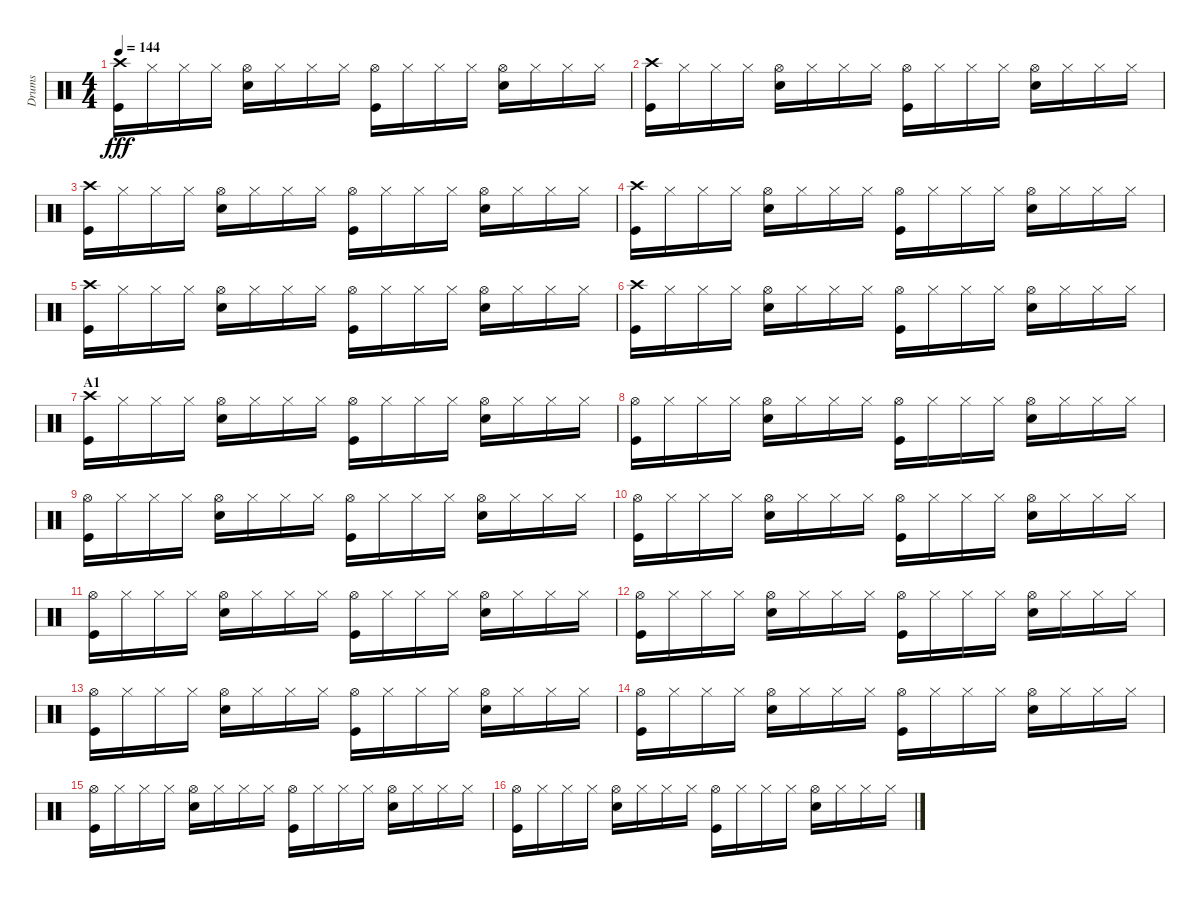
\track ("Drums" "Drums") {instrument percussion}
\staff {score}
\articulation defaults
\ts (4 4)
\tempo 144
\clef neutral
\ks c
("Crash high (hit)" "Kick (hit)").16{dy fff} "Hi-Hat (closed)".16 "Hi-Hat (closed)".16 "Hi-Hat (closed)".16 ("Hi-Hat (open)" "Snare (hit) 2").16 "Hi-Hat (closed)".16 "Hi-Hat (closed)".16 "Hi-Hat (closed)".16 ("Hi-Hat (open)" "Kick (hit)").16 "Hi-Hat (closed)".16 "Hi-Hat (closed)".16 "Hi-Hat (closed)".16 ("Hi-Hat (open)" "Snare (hit) 2").16 "Hi-Hat (closed)".16 "Hi-Hat (closed)".16 "Hi-Hat (closed)".16 |
("Crash high (hit)" "Kick (hit)").16 "Hi-Hat (closed)".16 "Hi-Hat (closed)".16 "Hi-Hat (closed)".16 ("Hi-Hat (open)" "Snare (hit) 2").16 "Hi-Hat (closed)".16 "Hi-Hat (closed)".16 "Hi-Hat (closed)".16 ("Hi-Hat (open)" "Kick (hit)").16 "Hi-Hat (closed)".16 "Hi-Hat (closed)".16 "Hi-Hat (closed)".16 ("Hi-Hat (open)" "Snare (hit) 2").16 "Hi-Hat (closed)".16 "Hi-Hat (closed)".16 "Hi-Hat (closed)".16 |
("Crash high (hit)" "Kick (hit)").16 "Hi-Hat (closed)".16 "Hi-Hat (closed)".16 "Hi-Hat (closed)".16 ("Hi-Hat (open)" "Snare (hit) 2").16 "Hi-Hat (closed)".16 "Hi-Hat (closed)".16 "Hi-Hat (closed)".16 ("Hi-Hat (open)" "Kick (hit)").16 "Hi-Hat (closed)".16 "Hi-Hat (closed)".16 "Hi-Hat (closed)".16 ("Hi-Hat (open)" "Snare (hit) 2").16 "Hi-Hat (closed)".16 "Hi-Hat (closed)".16 "Hi-Hat (closed)".16 |
("Crash high (hit)" "Kick (hit)").16 "Hi-Hat (closed)".16 "Hi-Hat (closed)".16 "Hi-Hat (closed)".16 ("Hi-Hat (open)" "Snare (hit) 2").16 "Hi-Hat (closed)".16 "Hi-Hat (closed)".16 "Hi-Hat (closed)".16 ("Hi-Hat (open)" "Kick (hit)").16 "Hi-Hat (closed)".16 "Hi-Hat (closed)".16 "Hi-Hat (closed)".16 ("Hi-Hat (open)" "Snare (hit) 2").16 "Hi-Hat (closed)".16 "Hi-Hat (closed)".16 "Hi-Hat (closed)".16 |
("Crash high (hit)" "Kick (hit)").16 "Hi-Hat (closed)".16 "Hi-Hat (closed)".16 "Hi-Hat (closed)".16 ("Hi-Hat (open)" "Snare (hit) 2").16 "Hi-Hat (closed)".16 "Hi-Hat (closed)".16 "Hi-Hat (closed)".16 ("Hi-Hat (open)" "Kick (hit)").16 "Hi-Hat (closed)".16 "Hi-Hat (closed)".16 "Hi-Hat (closed)".16 ("Hi-Hat (open)" "Snare (hit) 2").16 "Hi-Hat (closed)".16 "Hi-Hat (closed)".16 "Hi-Hat (closed)".16 |
("Crash high (hit)" "Kick (hit)").16 "Hi-Hat (closed)".16 "Hi-Hat (closed)".16 "Hi-Hat (closed)".16 ("Hi-Hat (open)" "Snare (hit) 2").16 "Hi-Hat (closed)".16 "Hi-Hat (closed)".16 "Hi-Hat (closed)".16 ("Hi-Hat (open)" "Kick (hit)").16 "Hi-Hat (closed)".16 "Hi-Hat (closed)".16 "Hi-Hat (closed)".16 ("Hi-Hat (open)" "Snare (hit) 2").16 "Hi-Hat (closed)".16 "Hi-Hat (closed)".16 "Hi-Hat (closed)".16 |
\section ("" "A1")
("Crash high (hit)" "Kick (hit)").16 "Hi-Hat (closed)".16 "Hi-Hat (closed)".16 "Hi-Hat (closed)".16 ("Hi-Hat (open)" "Snare (hit) 2").16 "Hi-Hat (closed)".16 "Hi-Hat (closed)".16 "Hi-Hat (closed)".16 ("Hi-Hat (open)" "Kick (hit)").16 "Hi-Hat (closed)".16 "Hi-Hat (closed)".16 "Hi-Hat (closed)".16 ("Hi-Hat (open)" "Snare (hit) 2").16 "Hi-Hat (closed)".16 "Hi-Hat (closed)".16 "Hi-Hat (closed)".16 |
("Hi-Hat (open)" "Kick (hit)").16 "Hi-Hat (closed)".16 "Hi-Hat (closed)".16 "Hi-Hat (closed)".16 ("Hi-Hat (open)" "Snare (hit) 2").16 "Hi-Hat (closed)".16 "Hi-Hat (closed)".16 "Hi-Hat (closed)".16 ("Hi-Hat (open)" "Kick (hit)").16 "Hi-Hat (closed)".16 "Hi-Hat (closed)".16 "Hi-Hat (closed)".16 ("Hi-Hat (open)" "Snare (hit) 2").16 "Hi-Hat (closed)".16 "Hi-Hat (closed)".16 "Hi-Hat (closed)".16 |
("Hi-Hat (open)" "Kick (hit)").16 "Hi-Hat (closed)".16 "Hi-Hat (closed)".16 "Hi-Hat (closed)".16 ("Hi-Hat (open)" "Snare (hit) 2").16 "Hi-Hat (closed)".16 "Hi-Hat (closed)".16 "Hi-Hat (closed)".16 ("Hi-Hat (open)" "Kick (hit)").16 "Hi-Hat (closed)".16 "Hi-Hat (closed)".16 "Hi-Hat (closed)".16 ("Hi-Hat (open)" "Snare (hit) 2").16 "Hi-Hat (closed)".16 "Hi-Hat (closed)".16 "Hi-Hat (closed)".16 |
("Hi-Hat (open)" "Kick (hit)").16 "Hi-Hat (closed)".16 "Hi-Hat (closed)".16 "Hi-Hat (closed)".16 ("Hi-Hat (open)" "Snare (hit) 2").16 "Hi-Hat (closed)".16 "Hi-Hat (closed)".16 "Hi-Hat (closed)".16 ("Hi-Hat (open)" "Kick (hit)").16 "Hi-Hat (closed)".16 "Hi-Hat (closed)".16 "Hi-Hat (closed)".16 ("Hi-Hat (open)" "Snare (hit) 2").16 "Hi-Hat (closed)".16 "Hi-Hat (closed)".16 "Hi-Hat (closed)".16 |
("Hi-Hat (open)" "Kick (hit)").16 "Hi-Hat (closed)".16 "Hi-Hat (closed)".16 "Hi-Hat (closed)".16 ("Hi-Hat (open)" "Snare (hit) 2").16 "Hi-Hat (closed)".16 "Hi-Hat (closed)".16 "Hi-Hat (closed)".16 ("Hi-Hat (open)" "Kick (hit)").16 "Hi-Hat (closed)".16 "Hi-Hat (closed)".16 "Hi-Hat (closed)".16 ("Hi-Hat (open)" "Snare (hit) 2").16 "Hi-Hat (closed)".16 "Hi-Hat (closed)".16 "Hi-Hat (closed)".16 |
("Hi-Hat (open)" "Kick (hit)").16 "Hi-Hat (closed)".16 "Hi-Hat (closed)".16 "Hi-Hat (closed)".16 ("Hi-Hat (open)" "Snare (hit) 2").16 "Hi-Hat (closed)".16 "Hi-Hat (closed)".16 "Hi-Hat (closed)".16 ("Hi-Hat (open)" "Kick (hit)").16 "Hi-Hat (closed)".16 "Hi-Hat (closed)".16 "Hi-Hat (closed)".16 ("Hi-Hat (open)" "Snare (hit) 2").16 "Hi-Hat (closed)".16 "Hi-Hat (closed)".16 "Hi-Hat (closed)".16 |
("Hi-Hat (open)" "Kick (hit)").16 "Hi-Hat (closed)".16 "Hi-Hat (closed)".16 "Hi-Hat (closed)".16 ("Hi-Hat (open)" "Snare (hit) 2").16 "Hi-Hat (closed)".16 "Hi-Hat (closed)".16 "Hi-Hat (closed)".16 ("Hi-Hat (open)" "Kick (hit)").16 "Hi-Hat (closed)".16 "Hi-Hat (closed)".16 "Hi-Hat (closed)".16 ("Hi-Hat (open)" "Snare (hit) 2").16 "Hi-Hat (closed)".16 "Hi-Hat (closed)".16 "Hi-Hat (closed)".16 |
("Hi-Hat (open)" "Kick (hit)").16 "Hi-Hat (closed)".16 "Hi-Hat (closed)".16 "Hi-Hat (closed)".16 ("Hi-Hat (open)" "Snare (hit) 2").16 "Hi-Hat (closed)".16 "Hi-Hat (closed)".16 "Hi-Hat (closed)".16 ("Hi-Hat (open)" "Kick (hit)").16 "Hi-Hat (closed)".16 "Hi-Hat (closed)".16 "Hi-Hat (closed)".16 ("Hi-Hat (open)" "Snare (hit) 2").16 "Hi-Hat (closed)".16 "Hi-Hat (closed)".16 "Hi-Hat (closed)".16 |
("Hi-Hat (open)" "Kick (hit)").16 "Hi-Hat (closed)".16 "Hi-Hat (closed)".16 "Hi-Hat (closed)".16 ("Hi-Hat (open)" "Snare (hit) 2").16 "Hi-Hat (closed)".16 "Hi-Hat (closed)".16 "Hi-Hat (closed)".16 ("Hi-Hat (open)" "Kick (hit)").16 "Hi-Hat (closed)".16 "Hi-Hat (closed)".16 "Hi-Hat (closed)".16 ("Hi-Hat (open)" "Snare (hit) 2").16 "Hi-Hat (closed)".16 "Hi-Hat (closed)".16 "Hi-Hat (closed)".16 |
("Hi-Hat (open)" "Kick (hit)").16 "Hi-Hat (closed)".16 "Hi-Hat (closed)".16 "Hi-Hat (closed)".16 ("Hi-Hat (open)" "Snare (hit) 2").16 "Hi-Hat (closed)".16 "Hi-Hat (closed)".16 "Hi-Hat (closed)".16 ("Hi-Hat (open)" "Kick (hit)").16 "Hi-Hat (closed)".16 "Hi-Hat (closed)".16 "Hi-Hat (closed)".16 ("Hi-Hat (open)" "Snare (hit) 2").16 "Hi-Hat (closed)".16 "Hi-Hat (closed)".16 "Hi-Hat (closed)".16
